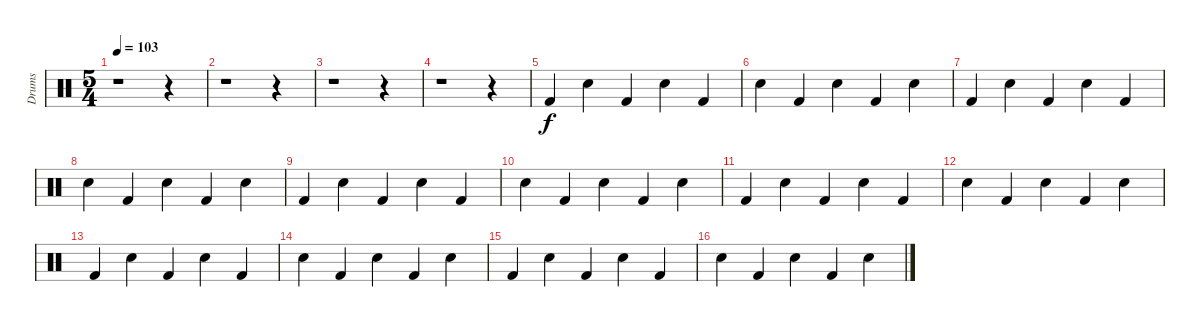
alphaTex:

\track ("Drums" "Drums") {instrument percussion}
\staff {score}
\articulation defaults
\ts (5 4)
\tempo 103
\clef neutral
\ks c
r.1{dy f} r.4 |
r.1 r.4 |
r.1 r.4 |
r.1 r.4 |
"Kick (hit) 2".4 "Snare (hit) 2".4 "Kick (hit) 2".4 "Snare (hit) 2".4 "Kick (hit) 2".4 |
"Snare (hit) 2".4 "Kick (hit) 2".4 "Snare (hit) 2".4 "Kick (hit) 2".4 "Snare (hit) 2".4 |
"Kick (hit) 2".4 "Snare (hit) 2".4 "Kick (hit) 2".4 "Snare (hit) 2".4 "Kick (hit) 2".4 |
"Snare (hit) 2".4 "Kick (hit) 2".4 "Snare (hit) 2".4 "Kick (hit) 2".4 "Snare (hit) 2".4 |
"Kick (hit) 2".4 "Snare (hit) 2".4 "Kick (hit) 2".4 "Snare (hit) 2".4 "Kick (hit) 2".4 |
"Snare (hit) 2".4 "Kick (hit) 2".4 "Snare (hit) 2".4 "Kick (hit) 2".4 "Snare (hit) 2".4 |
"Kick (hit) 2".4 "Snare (hit) 2".4 "Kick (hit) 2".4 "Snare (hit) 2".4 "Kick (hit) 2".4 |
"Snare (hit) 2".4 "Kick (hit) 2".4 "Snare (hit) 2".4 "Kick (hit) 2".4 "Snare (hit) 2".4 |
"Kick (hit) 2".4 "Snare (hit) 2".4 "Kick (hit) 2".4 "Snare (hit) 2".4 "Kick (hit) 2".4 |
"Snare (hit) 2".4 "Kick (hit) 2".4 "Snare (hit) 2".4 "Kick (hit) 2".4 "Snare (hit) 2".4 |
"Kick (hit) 2".4 "Snare (hit) 2".4 "Kick (hit) 2".4 "Snare (hit) 2".4 "Kick (hit) 2".4 |
"Snare (hit) 2".4 "Kick (hit) 2".4 "Snare (hit) 2".4 "Kick (hit) 2".4 "Snare (hit) 2".4
